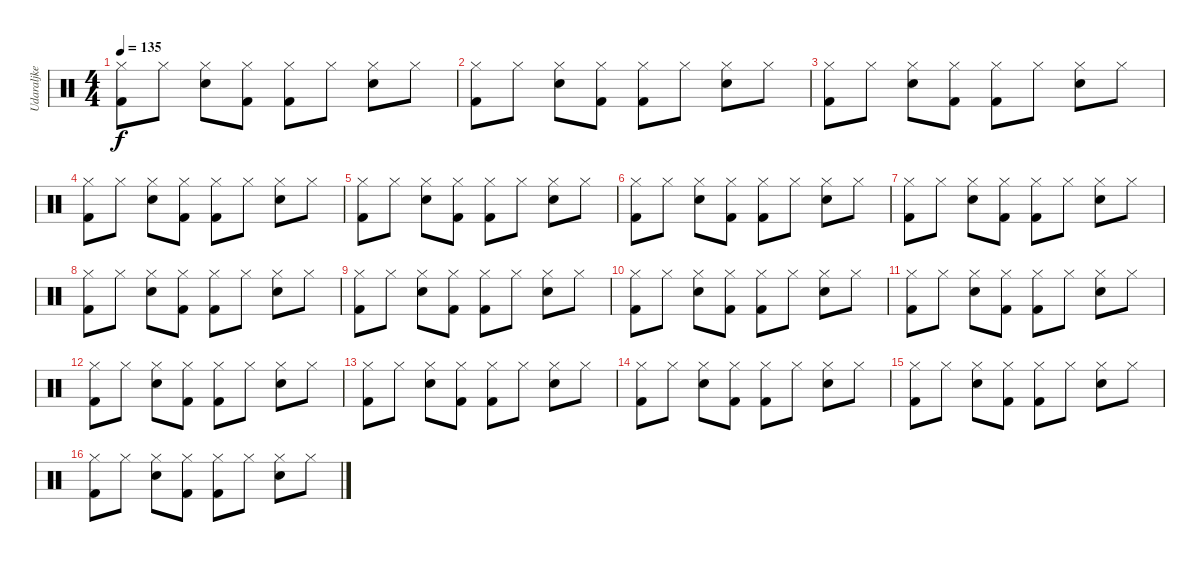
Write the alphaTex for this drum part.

\track ("Udaraljke" "Udaraljke") {instrument percussion}
\staff {score}
\articulation defaults
\ts (4 4)
\tempo 135
\clef neutral
\ks c
("Hi-Hat (closed)" "Kick (hit) 2").8{dy f} "Hi-Hat (closed)".8 ("Hi-Hat (closed)" "Electric Snare (hit)").8 ("Hi-Hat (closed)" "Kick (hit) 2").8 ("Hi-Hat (closed)" "Kick (hit) 2").8 "Hi-Hat (closed)".8 ("Hi-Hat (closed)" "Electric Snare (hit)").8 "Hi-Hat (closed)".8 |
("Hi-Hat (closed)" "Kick (hit) 2").8 "Hi-Hat (closed)".8 ("Hi-Hat (closed)" "Electric Snare (hit)").8 ("Hi-Hat (closed)" "Kick (hit) 2").8 ("Hi-Hat (closed)" "Kick (hit) 2").8 "Hi-Hat (closed)".8 ("Hi-Hat (closed)" "Electric Snare (hit)").8 "Hi-Hat (closed)".8 |
("Hi-Hat (closed)" "Kick (hit) 2").8 "Hi-Hat (closed)".8 ("Hi-Hat (closed)" "Electric Snare (hit)").8 ("Hi-Hat (closed)" "Kick (hit) 2").8 ("Hi-Hat (closed)" "Kick (hit) 2").8 "Hi-Hat (closed)".8 ("Hi-Hat (closed)" "Electric Snare (hit)").8 "Hi-Hat (closed)".8 |
("Hi-Hat (closed)" "Kick (hit) 2").8 "Hi-Hat (closed)".8 ("Hi-Hat (closed)" "Electric Snare (hit)").8 ("Hi-Hat (closed)" "Kick (hit) 2").8 ("Hi-Hat (closed)" "Kick (hit) 2").8 "Hi-Hat (closed)".8 ("Hi-Hat (closed)" "Electric Snare (hit)").8 "Hi-Hat (closed)".8 |
("Hi-Hat (closed)" "Kick (hit) 2").8 "Hi-Hat (closed)".8 ("Hi-Hat (closed)" "Electric Snare (hit)").8 ("Hi-Hat (closed)" "Kick (hit) 2").8 ("Hi-Hat (closed)" "Kick (hit) 2").8 "Hi-Hat (closed)".8 ("Hi-Hat (closed)" "Electric Snare (hit)").8 "Hi-Hat (closed)".8 |
("Hi-Hat (closed)" "Kick (hit) 2").8 "Hi-Hat (closed)".8 ("Hi-Hat (closed)" "Electric Snare (hit)").8 ("Hi-Hat (closed)" "Kick (hit) 2").8 ("Hi-Hat (closed)" "Kick (hit) 2").8 "Hi-Hat (closed)".8 ("Hi-Hat (closed)" "Electric Snare (hit)").8 "Hi-Hat (closed)".8 |
("Hi-Hat (closed)" "Kick (hit) 2").8 "Hi-Hat (closed)".8 ("Hi-Hat (closed)" "Electric Snare (hit)").8 ("Hi-Hat (closed)" "Kick (hit) 2").8 ("Hi-Hat (closed)" "Kick (hit) 2").8 "Hi-Hat (closed)".8 ("Hi-Hat (closed)" "Electric Snare (hit)").8 "Hi-Hat (closed)".8 |
("Hi-Hat (closed)" "Kick (hit) 2").8 "Hi-Hat (closed)".8 ("Hi-Hat (closed)" "Electric Snare (hit)").8 ("Hi-Hat (closed)" "Kick (hit) 2").8 ("Hi-Hat (closed)" "Kick (hit) 2").8 "Hi-Hat (closed)".8 ("Hi-Hat (closed)" "Electric Snare (hit)").8 "Hi-Hat (closed)".8 |
("Hi-Hat (closed)" "Kick (hit) 2").8 "Hi-Hat (closed)".8 ("Hi-Hat (closed)" "Electric Snare (hit)").8 ("Hi-Hat (closed)" "Kick (hit) 2").8 ("Hi-Hat (closed)" "Kick (hit) 2").8 "Hi-Hat (closed)".8 ("Hi-Hat (closed)" "Electric Snare (hit)").8 "Hi-Hat (closed)".8 |
("Hi-Hat (closed)" "Kick (hit) 2").8 "Hi-Hat (closed)".8 ("Hi-Hat (closed)" "Electric Snare (hit)").8 ("Hi-Hat (closed)" "Kick (hit) 2").8 ("Hi-Hat (closed)" "Kick (hit) 2").8 "Hi-Hat (closed)".8 ("Hi-Hat (closed)" "Electric Snare (hit)").8 "Hi-Hat (closed)".8 |
("Hi-Hat (closed)" "Kick (hit) 2").8 "Hi-Hat (closed)".8 ("Hi-Hat (closed)" "Electric Snare (hit)").8 ("Hi-Hat (closed)" "Kick (hit) 2").8 ("Hi-Hat (closed)" "Kick (hit) 2").8 "Hi-Hat (closed)".8 ("Hi-Hat (closed)" "Electric Snare (hit)").8 "Hi-Hat (closed)".8 |
("Hi-Hat (closed)" "Kick (hit) 2").8 "Hi-Hat (closed)".8 ("Hi-Hat (closed)" "Electric Snare (hit)").8 ("Hi-Hat (closed)" "Kick (hit) 2").8 ("Hi-Hat (closed)" "Kick (hit) 2").8 "Hi-Hat (closed)".8 ("Hi-Hat (closed)" "Electric Snare (hit)").8 "Hi-Hat (closed)".8 |
("Hi-Hat (closed)" "Kick (hit) 2").8 "Hi-Hat (closed)".8 ("Hi-Hat (closed)" "Electric Snare (hit)").8 ("Hi-Hat (closed)" "Kick (hit) 2").8 ("Hi-Hat (closed)" "Kick (hit) 2").8 "Hi-Hat (closed)".8 ("Hi-Hat (closed)" "Electric Snare (hit)").8 "Hi-Hat (closed)".8 |
("Hi-Hat (closed)" "Kick (hit) 2").8 "Hi-Hat (closed)".8 ("Hi-Hat (closed)" "Electric Snare (hit)").8 ("Hi-Hat (closed)" "Kick (hit) 2").8 ("Hi-Hat (closed)" "Kick (hit) 2").8 "Hi-Hat (closed)".8 ("Hi-Hat (closed)" "Electric Snare (hit)").8 "Hi-Hat (closed)".8 |
("Hi-Hat (closed)" "Kick (hit) 2").8 "Hi-Hat (closed)".8 ("Hi-Hat (closed)" "Electric Snare (hit)").8 ("Hi-Hat (closed)" "Kick (hit) 2").8 ("Hi-Hat (closed)" "Kick (hit) 2").8 "Hi-Hat (closed)".8 ("Hi-Hat (closed)" "Electric Snare (hit)").8 "Hi-Hat (closed)".8 |
("Hi-Hat (closed)" "Kick (hit) 2").8 "Hi-Hat (closed)".8 ("Hi-Hat (closed)" "Electric Snare (hit)").8 ("Hi-Hat (closed)" "Kick (hit) 2").8 ("Hi-Hat (closed)" "Kick (hit) 2").8 "Hi-Hat (closed)".8 ("Hi-Hat (closed)" "Electric Snare (hit)").8 "Hi-Hat (closed)".8
